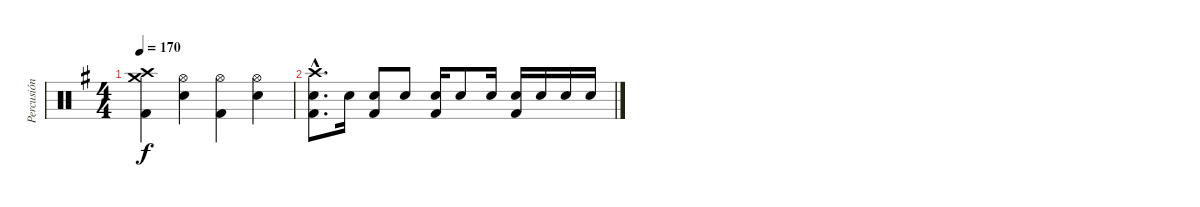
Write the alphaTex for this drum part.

\track ("Percusión" "Percusión") {instrument percussion}
\staff {score}
\articulation defaults
\ts (4 4)
\tempo 170
\clef neutral
\ks g
("Crash high (hit)" "Crash medium (hit)" "Kick (hit) 2").4{dy f} ("Hi-Hat (open)" "Snare (hit) 2").4 ("Hi-Hat (open)" "Kick (hit) 2").4 ("Hi-Hat (open)" "Snare (hit) 2").4 |
("Crash high (hit)"{hac} "Electric Snare (hit)"{hac} "Kick (hit) 2"{hac}).8{d} "Electric Snare (hit)".16 ("Electric Snare (hit)" "Kick (hit) 2").8 "Electric Snare (hit)".8 ("Electric Snare (hit)" "Kick (hit) 2").16 "Electric Snare (hit)".8 "Electric Snare (hit)".16 ("Electric Snare (hit)" "Kick (hit) 2").16 "Electric Snare (hit)".16 "Electric Snare (hit)".16 "Electric Snare (hit)".16
